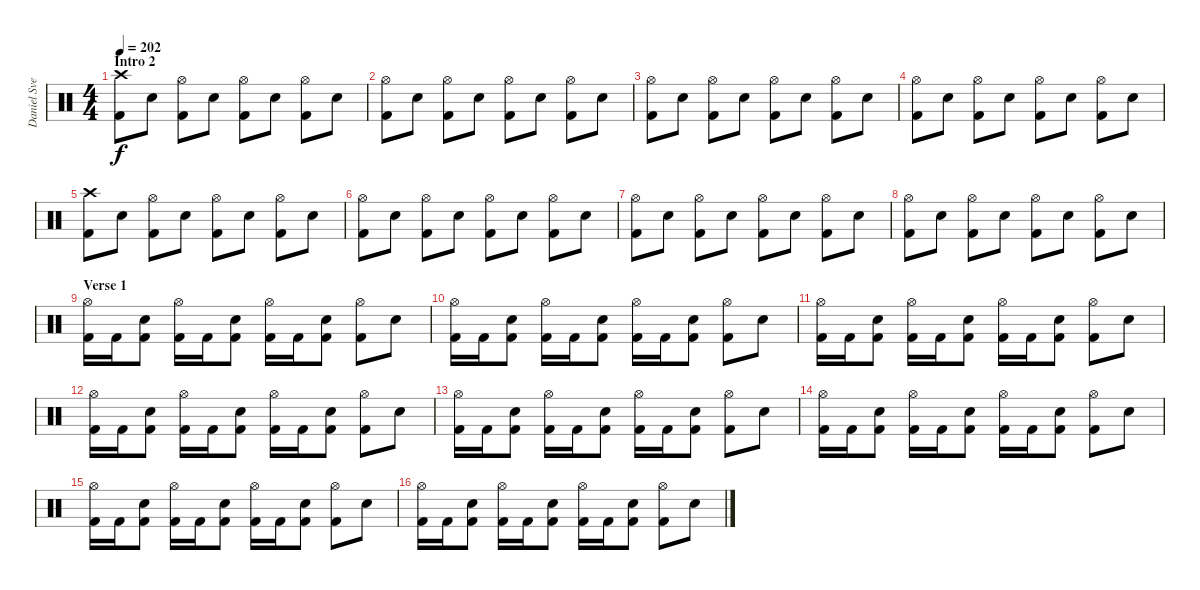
\track ("Daniel Svensson" "Daniel Sve") {instrument percussion}
\staff {score}
\articulation defaults
\ts (4 4)
\section ("" "Intro 2")
\tempo 202
\clef neutral
\ks c
("Crash high (hit)" "Kick (hit) 2").8{dy f} "Electric Snare (hit)".8 ("Hi-Hat (open)" "Kick (hit) 2").8 "Electric Snare (hit)".8 ("Hi-Hat (open)" "Kick (hit) 2").8 "Electric Snare (hit)".8 ("Hi-Hat (open)" "Kick (hit) 2").8 "Electric Snare (hit)".8 |
("Hi-Hat (open)" "Kick (hit) 2").8 "Electric Snare (hit)".8 ("Hi-Hat (open)" "Kick (hit) 2").8 "Electric Snare (hit)".8 ("Hi-Hat (open)" "Kick (hit) 2").8 "Electric Snare (hit)".8 ("Hi-Hat (open)" "Kick (hit) 2").8 "Electric Snare (hit)".8 |
("Hi-Hat (open)" "Kick (hit) 2").8 "Electric Snare (hit)".8 ("Hi-Hat (open)" "Kick (hit) 2").8 "Electric Snare (hit)".8 ("Hi-Hat (open)" "Kick (hit) 2").8 "Electric Snare (hit)".8 ("Hi-Hat (open)" "Kick (hit) 2").8 "Electric Snare (hit)".8 |
("Hi-Hat (open)" "Kick (hit) 2").8 "Electric Snare (hit)".8 ("Hi-Hat (open)" "Kick (hit) 2").8 "Electric Snare (hit)".8 ("Hi-Hat (open)" "Kick (hit) 2").8 "Electric Snare (hit)".8 ("Hi-Hat (open)" "Kick (hit) 2").8 "Electric Snare (hit)".8 |
("Crash high (hit)" "Kick (hit) 2").8 "Electric Snare (hit)".8 ("Hi-Hat (open)" "Kick (hit) 2").8 "Electric Snare (hit)".8 ("Hi-Hat (open)" "Kick (hit) 2").8 "Electric Snare (hit)".8 ("Hi-Hat (open)" "Kick (hit) 2").8 "Electric Snare (hit)".8 |
("Hi-Hat (open)" "Kick (hit) 2").8 "Electric Snare (hit)".8 ("Hi-Hat (open)" "Kick (hit) 2").8 "Electric Snare (hit)".8 ("Hi-Hat (open)" "Kick (hit) 2").8 "Electric Snare (hit)".8 ("Hi-Hat (open)" "Kick (hit) 2").8 "Electric Snare (hit)".8 |
("Hi-Hat (open)" "Kick (hit) 2").8 "Electric Snare (hit)".8 ("Hi-Hat (open)" "Kick (hit) 2").8 "Electric Snare (hit)".8 ("Hi-Hat (open)" "Kick (hit) 2").8 "Electric Snare (hit)".8 ("Hi-Hat (open)" "Kick (hit) 2").8 "Electric Snare (hit)".8 |
("Hi-Hat (open)" "Kick (hit) 2").8 "Electric Snare (hit)".8 ("Hi-Hat (open)" "Kick (hit) 2").8 "Electric Snare (hit)".8 ("Hi-Hat (open)" "Kick (hit) 2").8 "Electric Snare (hit)".8 ("Hi-Hat (open)" "Kick (hit) 2").8 "Electric Snare (hit)".8 |
\section ("" "Verse 1")
("Hi-Hat (open)" "Kick (hit) 2").16 "Kick (hit) 2".16 ("Electric Snare (hit)" "Kick (hit) 2").8 ("Hi-Hat (open)" "Kick (hit) 2").16 "Kick (hit) 2".16 ("Electric Snare (hit)" "Kick (hit) 2").8 ("Hi-Hat (open)" "Kick (hit) 2").16 "Kick (hit) 2".16 ("Electric Snare (hit)" "Kick (hit) 2").8 ("Hi-Hat (open)" "Kick (hit) 2").8 "Electric Snare (hit)".8 |
("Hi-Hat (open)" "Kick (hit) 2").16 "Kick (hit) 2".16 ("Electric Snare (hit)" "Kick (hit) 2").8 ("Hi-Hat (open)" "Kick (hit) 2").16 "Kick (hit) 2".16 ("Electric Snare (hit)" "Kick (hit) 2").8 ("Hi-Hat (open)" "Kick (hit) 2").16 "Kick (hit) 2".16 ("Electric Snare (hit)" "Kick (hit) 2").8 ("Hi-Hat (open)" "Kick (hit) 2").8 "Electric Snare (hit)".8 |
("Hi-Hat (open)" "Kick (hit) 2").16 "Kick (hit) 2".16 ("Electric Snare (hit)" "Kick (hit) 2").8 ("Hi-Hat (open)" "Kick (hit) 2").16 "Kick (hit) 2".16 ("Electric Snare (hit)" "Kick (hit) 2").8 ("Hi-Hat (open)" "Kick (hit) 2").16 "Kick (hit) 2".16 ("Electric Snare (hit)" "Kick (hit) 2").8 ("Hi-Hat (open)" "Kick (hit) 2").8 "Electric Snare (hit)".8 |
("Hi-Hat (open)" "Kick (hit) 2").16 "Kick (hit) 2".16 ("Electric Snare (hit)" "Kick (hit) 2").8 ("Hi-Hat (open)" "Kick (hit) 2").16 "Kick (hit) 2".16 ("Electric Snare (hit)" "Kick (hit) 2").8 ("Hi-Hat (open)" "Kick (hit) 2").16 "Kick (hit) 2".16 ("Electric Snare (hit)" "Kick (hit) 2").8 ("Hi-Hat (open)" "Kick (hit) 2").8 "Electric Snare (hit)".8 |
("Hi-Hat (open)" "Kick (hit) 2").16 "Kick (hit) 2".16 ("Electric Snare (hit)" "Kick (hit) 2").8 ("Hi-Hat (open)" "Kick (hit) 2").16 "Kick (hit) 2".16 ("Electric Snare (hit)" "Kick (hit) 2").8 ("Hi-Hat (open)" "Kick (hit) 2").16 "Kick (hit) 2".16 ("Electric Snare (hit)" "Kick (hit) 2").8 ("Hi-Hat (open)" "Kick (hit) 2").8 "Electric Snare (hit)".8 |
("Hi-Hat (open)" "Kick (hit) 2").16 "Kick (hit) 2".16 ("Electric Snare (hit)" "Kick (hit) 2").8 ("Hi-Hat (open)" "Kick (hit) 2").16 "Kick (hit) 2".16 ("Electric Snare (hit)" "Kick (hit) 2").8 ("Hi-Hat (open)" "Kick (hit) 2").16 "Kick (hit) 2".16 ("Electric Snare (hit)" "Kick (hit) 2").8 ("Hi-Hat (open)" "Kick (hit) 2").8 "Electric Snare (hit)".8 |
("Hi-Hat (open)" "Kick (hit) 2").16 "Kick (hit) 2".16 ("Electric Snare (hit)" "Kick (hit) 2").8 ("Hi-Hat (open)" "Kick (hit) 2").16 "Kick (hit) 2".16 ("Electric Snare (hit)" "Kick (hit) 2").8 ("Hi-Hat (open)" "Kick (hit) 2").16 "Kick (hit) 2".16 ("Electric Snare (hit)" "Kick (hit) 2").8 ("Hi-Hat (open)" "Kick (hit) 2").8 "Electric Snare (hit)".8 |
("Hi-Hat (open)" "Kick (hit) 2").16 "Kick (hit) 2".16 ("Electric Snare (hit)" "Kick (hit) 2").8 ("Hi-Hat (open)" "Kick (hit) 2").16 "Kick (hit) 2".16 ("Electric Snare (hit)" "Kick (hit) 2").8 ("Hi-Hat (open)" "Kick (hit) 2").16 "Kick (hit) 2".16 ("Electric Snare (hit)" "Kick (hit) 2").8 ("Hi-Hat (open)" "Kick (hit) 2").8 "Electric Snare (hit)".8
